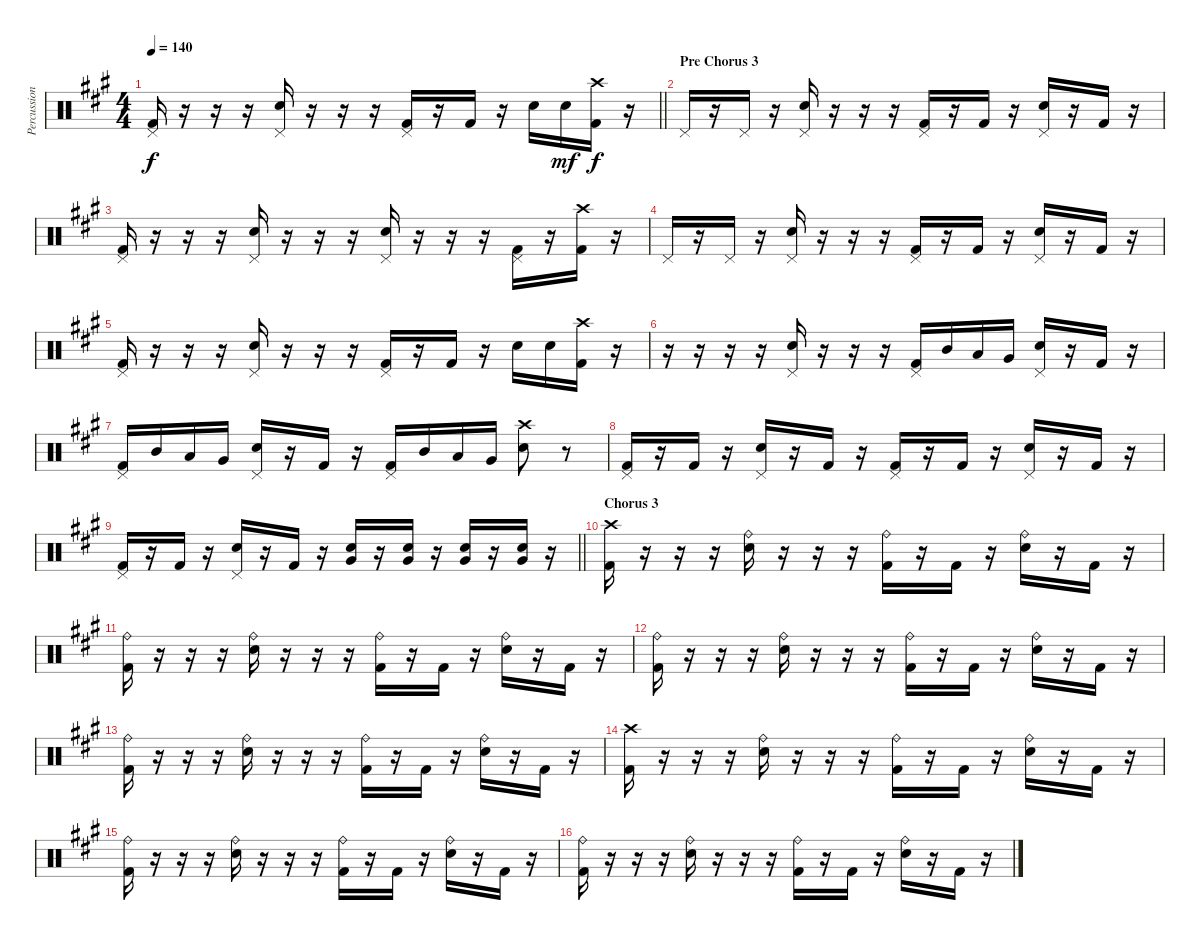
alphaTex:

\track ("Percussion" "Percussion") {instrument percussion}
\staff {score}
\articulation defaults
\ts (4 4)
\tempo 140
\clef neutral
\barLineRight lightlight
\ks a
("Kick (hit) 2" "Pedal Hi-Hat (hit)").16{dy f} r.16{beam merge} r.16 r.16{beam merge} ("Electric Snare (hit)" "Pedal Hi-Hat (hit)").16 r.16 r.16{beam merge} r.16 ("Kick (hit) 2" "Pedal Hi-Hat (hit)").16 r.16 "Kick (hit) 2".16 r.16 "Electric Snare (hit)".16 "Electric Snare (hit)".16{dy mf beam merge} ("Kick (hit) 2" "Crash high (hit)").16{dy f} r.16 |
\section ("" "Pre Chorus 3")
"Pedal Hi-Hat (hit)".16 r.16{beam merge} "Pedal Hi-Hat (hit)".16 r.16{beam merge} ("Electric Snare (hit)" "Pedal Hi-Hat (hit)").16 r.16 r.16{beam merge} r.16 ("Kick (hit) 2" "Pedal Hi-Hat (hit)").16 r.16 "Kick (hit) 2".16 r.16 ("Electric Snare (hit)" "Pedal Hi-Hat (hit)").16 r.16{beam merge} "Kick (hit) 2".16 r.16 |
("Kick (hit) 2" "Pedal Hi-Hat (hit)").16 r.16{beam merge} r.16 r.16{beam merge} ("Electric Snare (hit)" "Pedal Hi-Hat (hit)").16 r.16 r.16{beam merge} r.16 ("Electric Snare (hit)" "Pedal Hi-Hat (hit)").16 r.16 r.16 r.16 ("Kick (hit) 2" "Pedal Hi-Hat (hit)").16 r.16{beam merge} ("Kick (hit) 2" "Crash high (hit)").16 r.16 |
"Pedal Hi-Hat (hit)".16 r.16{beam merge} "Pedal Hi-Hat (hit)".16 r.16{beam merge} ("Electric Snare (hit)" "Pedal Hi-Hat (hit)").16 r.16 r.16{beam merge} r.16 ("Kick (hit) 2" "Pedal Hi-Hat (hit)").16 r.16 "Kick (hit) 2".16 r.16 ("Electric Snare (hit)" "Pedal Hi-Hat (hit)").16 r.16{beam merge} "Kick (hit) 2".16 r.16 |
("Kick (hit) 2" "Pedal Hi-Hat (hit)").16 r.16{beam merge} r.16 r.16{beam merge} ("Electric Snare (hit)" "Pedal Hi-Hat (hit)").16 r.16 r.16{beam merge} r.16 ("Kick (hit) 2" "Pedal Hi-Hat (hit)").16 r.16 "Kick (hit) 2".16 r.16 "Electric Snare (hit)".16 "Electric Snare (hit)".16{beam merge} ("Kick (hit) 2" "Crash high (hit)").16 r.16 |
r.16 r.16{beam merge} r.16 r.16{beam merge} ("Electric Snare (hit)" "Pedal Hi-Hat (hit)").16 r.16 r.16 r.16 ("Kick (hit) 2" "Pedal Hi-Hat (hit)").16 "Mid Tom (hit)".16 "Low Tom (hit)".16 "Very Low Tom (hit)".16 ("Electric Snare (hit)" "Pedal Hi-Hat (hit)").16{beam merge} r.16 "Kick (hit) 2".16{beam merge} r.16 |
("Kick (hit) 2" "Pedal Hi-Hat (hit)").16 "Mid Tom (hit)".16 "Low Tom (hit)".16 "Very Low Tom (hit)".16 ("Electric Snare (hit)" "Pedal Hi-Hat (hit)").16{beam merge} r.16 "Kick (hit) 2".16 r.16 ("Kick (hit) 2" "Pedal Hi-Hat (hit)").16 "Mid Tom (hit)".16 "Low Tom (hit)".16 "Very Low Tom (hit)".16 ("Electric Snare (hit)" "Crash high (hit)").8 r.8 |
("Kick (hit) 2" "Pedal Hi-Hat (hit)").16{beam merge} r.16 "Kick (hit) 2".16 r.16 ("Electric Snare (hit)" "Pedal Hi-Hat (hit)").16{beam merge} r.16{beam merge} "Kick (hit) 2".16 r.16 ("Kick (hit) 2" "Pedal Hi-Hat (hit)").16{beam merge} r.16{beam merge} "Kick (hit) 2".16 r.16 ("Electric Snare (hit)" "Pedal Hi-Hat (hit)").16 r.16{beam merge} "Kick (hit) 2".16 r.16 |
\barLineRight lightlight
("Kick (hit) 2" "Pedal Hi-Hat (hit)").16{beam merge} r.16 "Kick (hit) 2".16 r.16 ("Electric Snare (hit)" "Pedal Hi-Hat (hit)").16{beam merge} r.16{beam merge} "Kick (hit) 2".16 r.16 ("Electric Snare (hit)" "Very Low Tom (hit)").16{beam merge} r.16{beam merge} ("Electric Snare (hit)" "Very Low Tom (hit)").16 r.16 ("Electric Snare (hit)" "Very Low Tom (hit)").16 r.16{beam merge} ("Electric Snare (hit)" "Very Low Tom (hit)").16 r.16 |
\section ("" "Chorus 3")
("Kick (hit) 2" "Crash high (hit)").16 r.16{beam merge} r.16 r.16{beam merge} ("Electric Snare (hit)" "Ride (bell)").16 r.16 r.16{beam merge} r.16 ("Kick (hit) 2" "Ride (bell)").16 r.16 "Kick (hit) 2".16 r.16 ("Electric Snare (hit)" "Ride (bell)").16 r.16{beam merge} "Kick (hit) 2".16 r.16 |
("Kick (hit) 2" "Ride (bell)").16 r.16{beam merge} r.16 r.16{beam merge} ("Electric Snare (hit)" "Ride (bell)").16 r.16 r.16{beam merge} r.16 ("Kick (hit) 2" "Ride (bell)").16 r.16 "Kick (hit) 2".16 r.16 ("Electric Snare (hit)" "Ride (bell)").16 r.16{beam merge} "Kick (hit) 2".16 r.16 |
("Kick (hit) 2" "Ride (bell)").16 r.16{beam merge} r.16 r.16{beam merge} ("Electric Snare (hit)" "Ride (bell)").16 r.16 r.16{beam merge} r.16 ("Kick (hit) 2" "Ride (bell)").16 r.16 "Kick (hit) 2".16 r.16 ("Electric Snare (hit)" "Ride (bell)").16 r.16{beam merge} "Kick (hit) 2".16 r.16 |
("Kick (hit) 2" "Ride (bell)").16 r.16{beam merge} r.16 r.16{beam merge} ("Electric Snare (hit)" "Ride (bell)").16 r.16 r.16{beam merge} r.16 ("Kick (hit) 2" "Ride (bell)").16 r.16 "Kick (hit) 2".16 r.16 ("Electric Snare (hit)" "Ride (bell)").16 r.16{beam merge} "Kick (hit) 2".16 r.16 |
("Kick (hit) 2" "Crash high (hit)").16 r.16{beam merge} r.16 r.16{beam merge} ("Electric Snare (hit)" "Ride (bell)").16 r.16 r.16{beam merge} r.16 ("Kick (hit) 2" "Ride (bell)").16 r.16 "Kick (hit) 2".16 r.16 ("Electric Snare (hit)" "Ride (bell)").16 r.16{beam merge} "Kick (hit) 2".16 r.16 |
("Kick (hit) 2" "Ride (bell)").16 r.16{beam merge} r.16 r.16{beam merge} ("Electric Snare (hit)" "Ride (bell)").16 r.16 r.16{beam merge} r.16 ("Kick (hit) 2" "Ride (bell)").16 r.16 "Kick (hit) 2".16 r.16 ("Electric Snare (hit)" "Ride (bell)").16 r.16{beam merge} "Kick (hit) 2".16 r.16 |
("Kick (hit) 2" "Ride (bell)").16 r.16{beam merge} r.16 r.16{beam merge} ("Electric Snare (hit)" "Ride (bell)").16 r.16 r.16{beam merge} r.16 ("Kick (hit) 2" "Ride (bell)").16 r.16 "Kick (hit) 2".16 r.16 ("Electric Snare (hit)" "Ride (bell)").16 r.16{beam merge} "Kick (hit) 2".16 r.16
